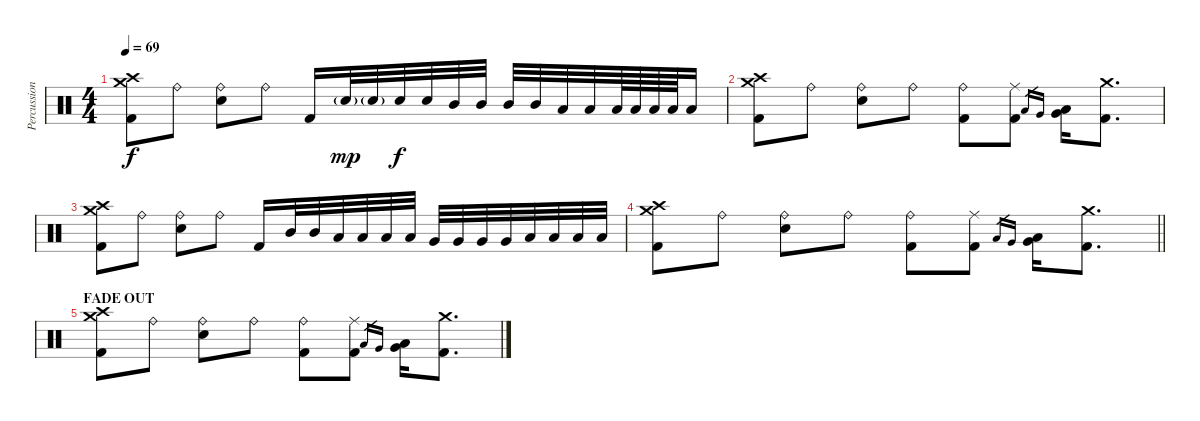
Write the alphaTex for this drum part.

\track ("Percussion" "Percussion") {instrument percussion}
\staff {score}
\articulation defaults
\ts (4 4)
\tempo 69
\clef neutral
\ks c
("Crash high (hit)" "Crash medium (hit)" "Kick (hit) 2").8{dy f} "Ride (bell)".8 ("Ride (bell)" "Snare (hit) 2").8 "Ride (bell)".8 "Kick (hit) 2".16 "Snare (hit) 2"{g}.32{dy mp} "Snare (hit) 2"{g}.32 "Snare (hit) 2".32{dy f} "Snare (hit) 2".32 "Mid Tom (hit)".32 "Mid Tom (hit)".32 "Mid Tom (hit)".32 "Mid Tom (hit)".32 "Low Tom (hit)".32 "Low Tom (hit)".32 "Low Tom (hit)".64 "Low Tom (hit)".64 "Low Tom (hit)".64 "Low Tom (hit)".64 "Low Floor Tom (hit)".16 |
("Crash high (hit)" "Crash medium (hit)" "Kick (hit) 2").8 "Ride (bell)".8 ("Ride (bell)" "Snare (hit) 2").8 "Ride (bell)".8 ("Ride (bell)" "Kick (hit) 2").8 ("Ride (middle)" "Kick (hit) 2").8 "Low Tom (hit)".16{gr} "Very Low Tom (hit)".16{gr} ("Low Tom (hit)" "Very Low Tom (hit)").16 ("Crash medium (hit)" "Kick (hit) 2").8{d} |
("Crash high (hit)" "Crash medium (hit)" "Kick (hit) 2").8 "Ride (bell)".8 ("Ride (bell)" "Snare (hit) 2").8 "Ride (bell)".8 "Kick (hit) 2".16 "Mid Tom (hit)".32 "Mid Tom (hit)".32 "Low Tom (hit)".32 "Low Tom (hit)".32 "Low Tom (hit)".32 "Low Tom (hit)".32 "Very Low Tom (hit)".32 "Very Low Tom (hit)".32 "Very Low Tom (hit)".32 "Very Low Tom (hit)".32 "Low Floor Tom (hit)".32 "Low Floor Tom (hit)".32 "Low Floor Tom (hit)".32 "Low Floor Tom (hit)".32 |
\barLineRight lightlight
("Crash high (hit)" "Crash medium (hit)" "Kick (hit) 2").8 "Ride (bell)".8 ("Ride (bell)" "Snare (hit) 2").8 "Ride (bell)".8 ("Ride (bell)" "Kick (hit) 2").8 ("Ride (middle)" "Kick (hit) 2").8 "Low Tom (hit)".16{gr} "Very Low Tom (hit)".16{gr} ("Low Tom (hit)" "Very Low Tom (hit)").16 ("Crash medium (hit)" "Kick (hit) 2").8{d} |
\section ("" "FADE OUT")
("Crash high (hit)" "Crash medium (hit)" "Kick (hit) 2").8 "Ride (bell)".8 ("Ride (bell)" "Snare (hit) 2").8 "Ride (bell)".8 ("Ride (bell)" "Kick (hit) 2").8 ("Ride (middle)" "Kick (hit) 2").8 "Low Tom (hit)".16{gr} "Very Low Tom (hit)".16{gr} ("Low Tom (hit)" "Very Low Tom (hit)").16 ("Crash medium (hit)" "Kick (hit) 2").8{d}
